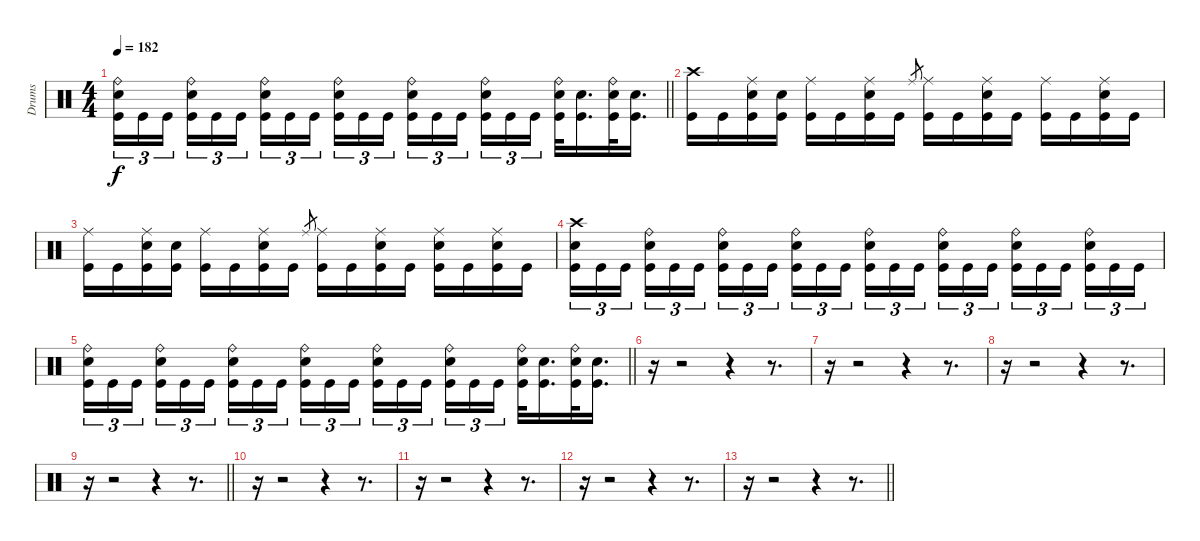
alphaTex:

\track ("Drums" "Drums") {instrument percussion}
\staff
\articulation defaults
\ts (4 4)
\tempo 182
\clef neutral
\barLineRight lightlight
\ks c
("Ride (bell)" "Electric Snare (hit)" "Kick (hit)").16{tu (3 2) dy f} "Kick (hit)".16{tu (3 2)} "Kick (hit)".16{tu (3 2) beam splitsecondary} ("Ride (bell)" "Electric Snare (hit)" "Kick (hit)").16{tu (3 2)} "Kick (hit)".16{tu (3 2)} "Kick (hit)".16{tu (3 2)} ("Ride (bell)" "Electric Snare (hit)" "Kick (hit)").16{tu (3 2)} "Kick (hit)".16{tu (3 2)} "Kick (hit)".16{tu (3 2) beam splitsecondary} ("Ride (bell)" "Electric Snare (hit)" "Kick (hit)").16{tu (3 2)} "Kick (hit)".16{tu (3 2)} "Kick (hit)".16{tu (3 2)} ("Ride (bell)" "Electric Snare (hit)" "Kick (hit)").16{tu (3 2)} "Kick (hit)".16{tu (3 2)} "Kick (hit)".16{tu (3 2) beam splitsecondary} ("Ride (bell)" "Electric Snare (hit)" "Kick (hit)").16{tu (3 2)} "Kick (hit)".16{tu (3 2)} "Kick (hit)".16{tu (3 2)} ("Ride (bell)" "Electric Snare (hit)" "Kick (hit)").32 ("Electric Snare (hit)" "Kick (hit)").16{d} ("Ride (bell)" "Electric Snare (hit)" "Kick (hit)").32 ("Electric Snare (hit)" "Kick (hit)").16{d} |
("Crash high (hit)" "Kick (hit)").16 "Kick (hit)".16 ("Ride (middle)" "Electric Snare (hit)" "Kick (hit)").16 ("Electric Snare (hit)" "Kick (hit)").16 ("Ride (middle)" "Kick (hit)").16 "Kick (hit)".16 ("Ride (middle)" "Electric Snare (hit)" "Kick (hit)").16 "Kick (hit)".16 "Ride (middle)".8{gr} ("Ride (middle)" "Kick (hit)").16 "Kick (hit)".16 ("Ride (middle)" "Electric Snare (hit)" "Kick (hit)").16 "Kick (hit)".16 ("Ride (middle)" "Kick (hit)").16 "Kick (hit)".16 ("Ride (middle)" "Electric Snare (hit)" "Kick (hit)").16 "Kick (hit)".16 |
("Ride (middle)" "Kick (hit)").16 "Kick (hit)".16 ("Ride (middle)" "Electric Snare (hit)" "Kick (hit)").16 ("Electric Snare (hit)" "Kick (hit)").16 ("Ride (middle)" "Kick (hit)").16 "Kick (hit)".16 ("Ride (middle)" "Electric Snare (hit)" "Kick (hit)").16 "Kick (hit)".16 "Ride (middle)".8{gr} ("Ride (middle)" "Kick (hit)").16 "Kick (hit)".16 ("Ride (middle)" "Electric Snare (hit)" "Kick (hit)").16 "Kick (hit)".16 ("Ride (middle)" "Electric Snare (hit)" "Kick (hit)").16 "Kick (hit)".16 ("Ride (middle)" "Electric Snare (hit)" "Kick (hit)").16 "Kick (hit)".16 |
("Crash high (hit)" "Electric Snare (hit)" "Kick (hit)").16{tu (3 2)} "Kick (hit)".16{tu (3 2)} "Kick (hit)".16{tu (3 2) beam splitsecondary} ("Ride (bell)" "Electric Snare (hit)" "Kick (hit)").16{tu (3 2)} "Kick (hit)".16{tu (3 2)} "Kick (hit)".16{tu (3 2)} ("Ride (bell)" "Electric Snare (hit)" "Kick (hit)").16{tu (3 2)} "Kick (hit)".16{tu (3 2)} "Kick (hit)".16{tu (3 2) beam splitsecondary} ("Ride (bell)" "Electric Snare (hit)" "Kick (hit)").16{tu (3 2)} "Kick (hit)".16{tu (3 2)} "Kick (hit)".16{tu (3 2)} ("Ride (bell)" "Electric Snare (hit)" "Kick (hit)").16{tu (3 2)} "Kick (hit)".16{tu (3 2)} "Kick (hit)".16{tu (3 2) beam splitsecondary} ("Ride (bell)" "Electric Snare (hit)" "Kick (hit)").16{tu (3 2)} "Kick (hit)".16{tu (3 2)} "Kick (hit)".16{tu (3 2)} ("Ride (bell)" "Electric Snare (hit)" "Kick (hit)").16{tu (3 2)} "Kick (hit)".16{tu (3 2)} "Kick (hit)".16{tu (3 2) beam splitsecondary} ("Ride (bell)" "Electric Snare (hit)" "Kick (hit)").16{tu (3 2)} "Kick (hit)".16{tu (3 2)} "Kick (hit)".16{tu (3 2)} |
\barLineRight lightlight
("Ride (bell)" "Electric Snare (hit)" "Kick (hit)").16{tu (3 2)} "Kick (hit)".16{tu (3 2)} "Kick (hit)".16{tu (3 2) beam splitsecondary} ("Ride (bell)" "Electric Snare (hit)" "Kick (hit)").16{tu (3 2)} "Kick (hit)".16{tu (3 2)} "Kick (hit)".16{tu (3 2)} ("Ride (bell)" "Electric Snare (hit)" "Kick (hit)").16{tu (3 2)} "Kick (hit)".16{tu (3 2)} "Kick (hit)".16{tu (3 2) beam splitsecondary} ("Ride (bell)" "Electric Snare (hit)" "Kick (hit)").16{tu (3 2)} "Kick (hit)".16{tu (3 2)} "Kick (hit)".16{tu (3 2)} ("Ride (bell)" "Electric Snare (hit)" "Kick (hit)").16{tu (3 2)} "Kick (hit)".16{tu (3 2)} "Kick (hit)".16{tu (3 2) beam splitsecondary} ("Ride (bell)" "Electric Snare (hit)" "Kick (hit)").16{tu (3 2)} "Kick (hit)".16{tu (3 2)} "Kick (hit)".16{tu (3 2)} ("Ride (bell)" "Electric Snare (hit)" "Kick (hit)").32 ("Electric Snare (hit)" "Kick (hit)").16{d} ("Ride (bell)" "Electric Snare (hit)" "Kick (hit)").32 ("Electric Snare (hit)" "Kick (hit)").16{d} |
r.16 r.2 r.4 r.8{d} |
r.16 r.2 r.4 r.8{d} |
r.16 r.2 r.4 r.8{d} |
\barLineRight lightlight
r.16 r.2 r.4 r.8{d} |
r.16 r.2 r.4 r.8{d} |
r.16 r.2 r.4 r.8{d} |
r.16 r.2 r.4 r.8{d} |
\barLineRight lightlight
r.16 r.2 r.4 r.8{d}
